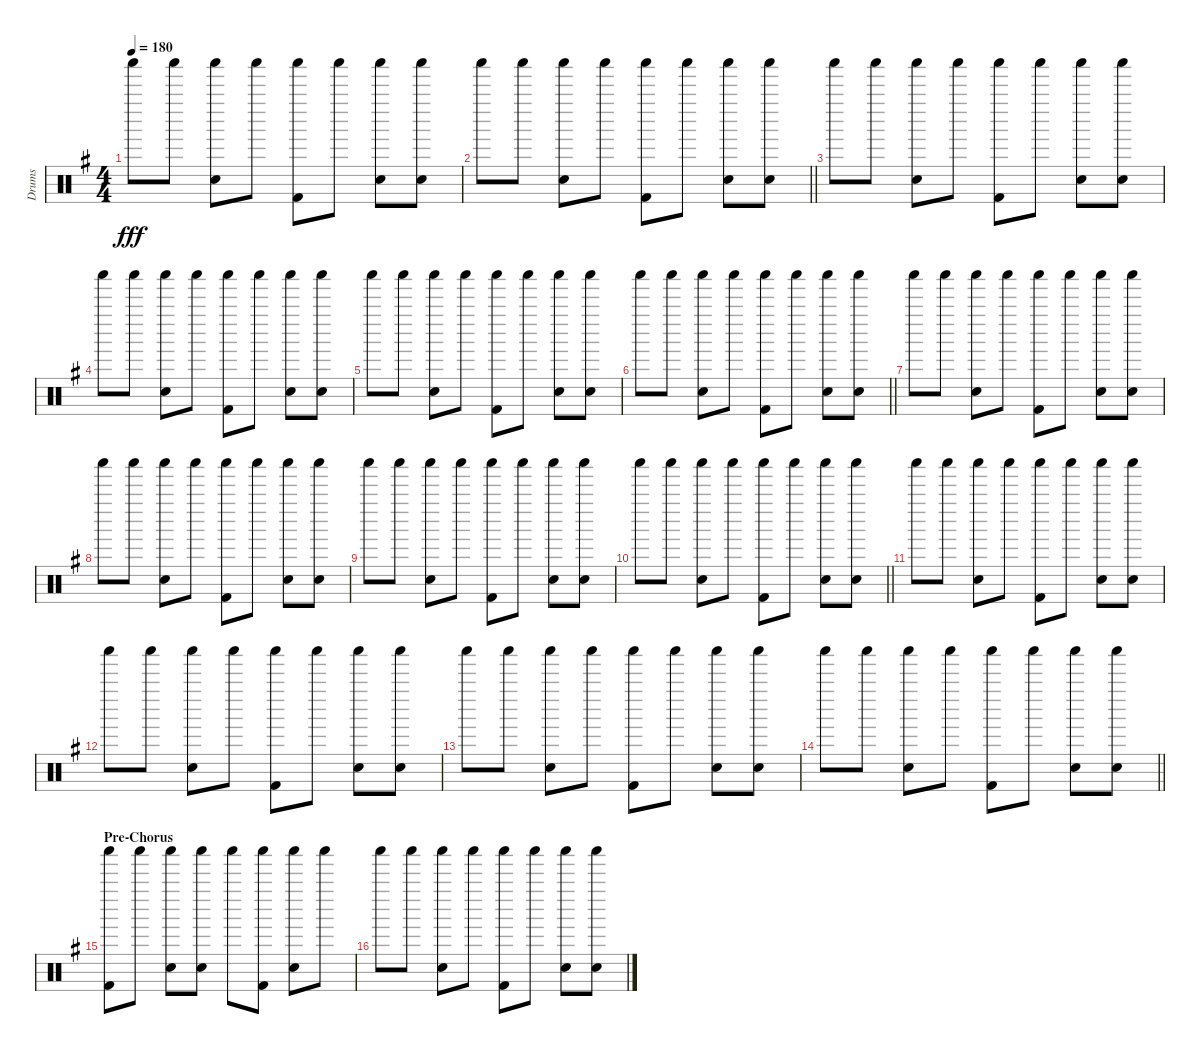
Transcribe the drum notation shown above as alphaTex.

\track ("Drums" "Drums") {instrument percussion}
\staff {score}
\articulation defaults
\ts (4 4)
\tempo 180
\clef neutral
\ks eminor "Shaker (hit)".8{dy fff} "Shaker (hit)".8
("Shaker (hit)" "Snare (hit) 2").8 "Shaker (hit)".8 ("Shaker (hit)" "Kick (hit) 2").8 "Shaker (hit)".8 ("Shaker (hit)" "Snare (hit) 2").8 ("Shaker (hit)" "Snare (hit) 2").8 |
\barLineRight lightlight "Shaker (hit)".8 "Shaker (hit)".8
("Shaker (hit)" "Snare (hit) 2").8 "Shaker (hit)".8 ("Shaker (hit)" "Kick (hit) 2").8 "Shaker (hit)".8 ("Shaker (hit)" "Snare (hit) 2").8 ("Shaker (hit)" "Snare (hit) 2").8 |
"Shaker (hit)".8 "Shaker (hit)".8 ("Shaker (hit)" "Snare (hit) 2").8 "Shaker (hit)".8 ("Shaker (hit)" "Kick (hit) 2").8 "Shaker (hit)".8 ("Shaker (hit)" "Snare (hit) 2").8 ("Shaker (hit)" "Snare (hit) 2").8 |
"Shaker (hit)".8 "Shaker (hit)".8 ("Shaker (hit)" "Snare (hit) 2").8 "Shaker (hit)".8 ("Shaker (hit)" "Kick (hit) 2").8 "Shaker (hit)".8 ("Shaker (hit)" "Snare (hit) 2").8 ("Shaker (hit)" "Snare (hit) 2").8 |
"Shaker (hit)".8 "Shaker (hit)".8 ("Shaker (hit)" "Snare (hit) 2").8 "Shaker (hit)".8 ("Shaker (hit)" "Kick (hit) 2").8 "Shaker (hit)".8 ("Shaker (hit)" "Snare (hit) 2").8 ("Shaker (hit)" "Snare (hit) 2").8 |
\barLineRight lightlight "Shaker (hit)".8 "Shaker (hit)".8
("Shaker (hit)" "Snare (hit) 2").8 "Shaker (hit)".8 ("Shaker (hit)" "Kick (hit) 2").8 "Shaker (hit)".8 ("Shaker (hit)" "Snare (hit) 2").8 ("Shaker (hit)" "Snare (hit) 2").8 |
"Shaker (hit)".8 "Shaker (hit)".8 ("Shaker (hit)" "Snare (hit) 2").8 "Shaker (hit)".8 ("Shaker (hit)" "Kick (hit) 2").8 "Shaker (hit)".8 ("Shaker (hit)" "Snare (hit) 2").8 ("Shaker (hit)" "Snare (hit) 2").8 |
"Shaker (hit)".8 "Shaker (hit)".8 ("Shaker (hit)" "Snare (hit) 2").8 "Shaker (hit)".8 ("Shaker (hit)" "Kick (hit) 2").8 "Shaker (hit)".8 ("Shaker (hit)" "Snare (hit) 2").8 ("Shaker (hit)" "Snare (hit) 2").8 |
"Shaker (hit)".8 "Shaker (hit)".8 ("Shaker (hit)" "Snare (hit) 2").8 "Shaker (hit)".8 ("Shaker (hit)" "Kick (hit) 2").8 "Shaker (hit)".8 ("Shaker (hit)" "Snare (hit) 2").8 ("Shaker (hit)" "Snare (hit) 2").8 |
\barLineRight lightlight "Shaker (hit)".8 "Shaker (hit)".8
("Shaker (hit)" "Snare (hit) 2").8 "Shaker (hit)".8 ("Shaker (hit)" "Kick (hit) 2").8 "Shaker (hit)".8 ("Shaker (hit)" "Snare (hit) 2").8 ("Shaker (hit)" "Snare (hit) 2").8 |
"Shaker (hit)".8 "Shaker (hit)".8 ("Shaker (hit)" "Snare (hit) 2").8 "Shaker (hit)".8 ("Shaker (hit)" "Kick (hit) 2").8 "Shaker (hit)".8 ("Shaker (hit)" "Snare (hit) 2").8 ("Shaker (hit)" "Snare (hit) 2").8 |
"Shaker (hit)".8 "Shaker (hit)".8 ("Shaker (hit)" "Snare (hit) 2").8 "Shaker (hit)".8 ("Shaker (hit)" "Kick (hit) 2").8 "Shaker (hit)".8 ("Shaker (hit)" "Snare (hit) 2").8 ("Shaker (hit)" "Snare (hit) 2").8 |
"Shaker (hit)".8 "Shaker (hit)".8 ("Shaker (hit)" "Snare (hit) 2").8 "Shaker (hit)".8 ("Shaker (hit)" "Kick (hit) 2").8 "Shaker (hit)".8 ("Shaker (hit)" "Snare (hit) 2").8 ("Shaker (hit)" "Snare (hit) 2").8 |
\barLineRight lightlight "Shaker (hit)".8 "Shaker (hit)".8
("Shaker (hit)" "Snare (hit) 2").8 "Shaker (hit)".8 ("Shaker (hit)" "Kick (hit) 2").8 "Shaker (hit)".8 ("Shaker (hit)" "Snare (hit) 2").8 ("Shaker (hit)" "Snare (hit) 2").8 |
\section ("" "Pre-Chorus")
("Shaker (hit)" "Kick (hit) 2").8 "Shaker (hit)".8 ("Shaker (hit)" "Snare (hit) 2").8 ("Shaker (hit)" "Snare (hit) 2").8 "Shaker (hit)".8 ("Shaker (hit)" "Kick (hit) 2").8 ("Shaker (hit)" "Snare (hit) 2").8 "Shaker (hit)".8 |
"Shaker (hit)".8 "Shaker (hit)".8 ("Shaker (hit)" "Snare (hit) 2").8 "Shaker (hit)".8 ("Shaker (hit)" "Kick (hit) 2").8 "Shaker (hit)".8 ("Shaker (hit)" "Snare (hit) 2").8 ("Shaker (hit)" "Snare (hit) 2").8
